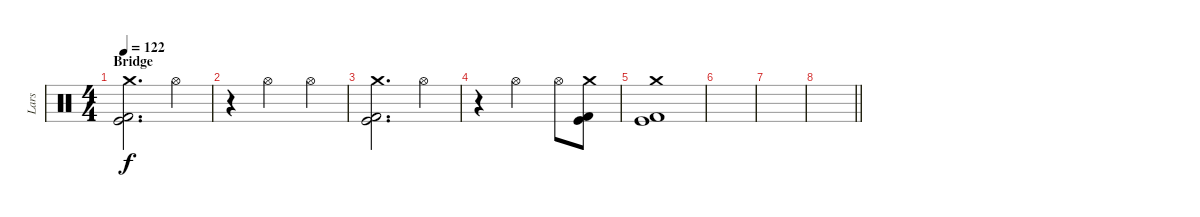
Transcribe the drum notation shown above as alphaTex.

\track ("Lars" "Lars") {instrument percussion}
\staff {score}
\articulation defaults
\ts (4 4)
\section ("" "Bridge")
\tempo 122
\clef neutral
\ks c
("Crash medium (hit)" "Kick (hit)" "Kick (hit) 2").2{d dy f} "Hi-Hat (open)".4 |
r.4 "Hi-Hat (open)".2 "Hi-Hat (open)".4 |
("Crash medium (hit)" "Kick (hit)" "Kick (hit) 2").2{d} "Hi-Hat (open)".4 |
r.4 "Hi-Hat (open)".2 "Hi-Hat (open)".8 ("Crash medium (hit)" "Kick (hit)" "Kick (hit) 2").8 |
("Crash medium (hit)" "Kick (hit)" "Kick (hit) 2").1 |
|
|
\barLineRight lightlight
